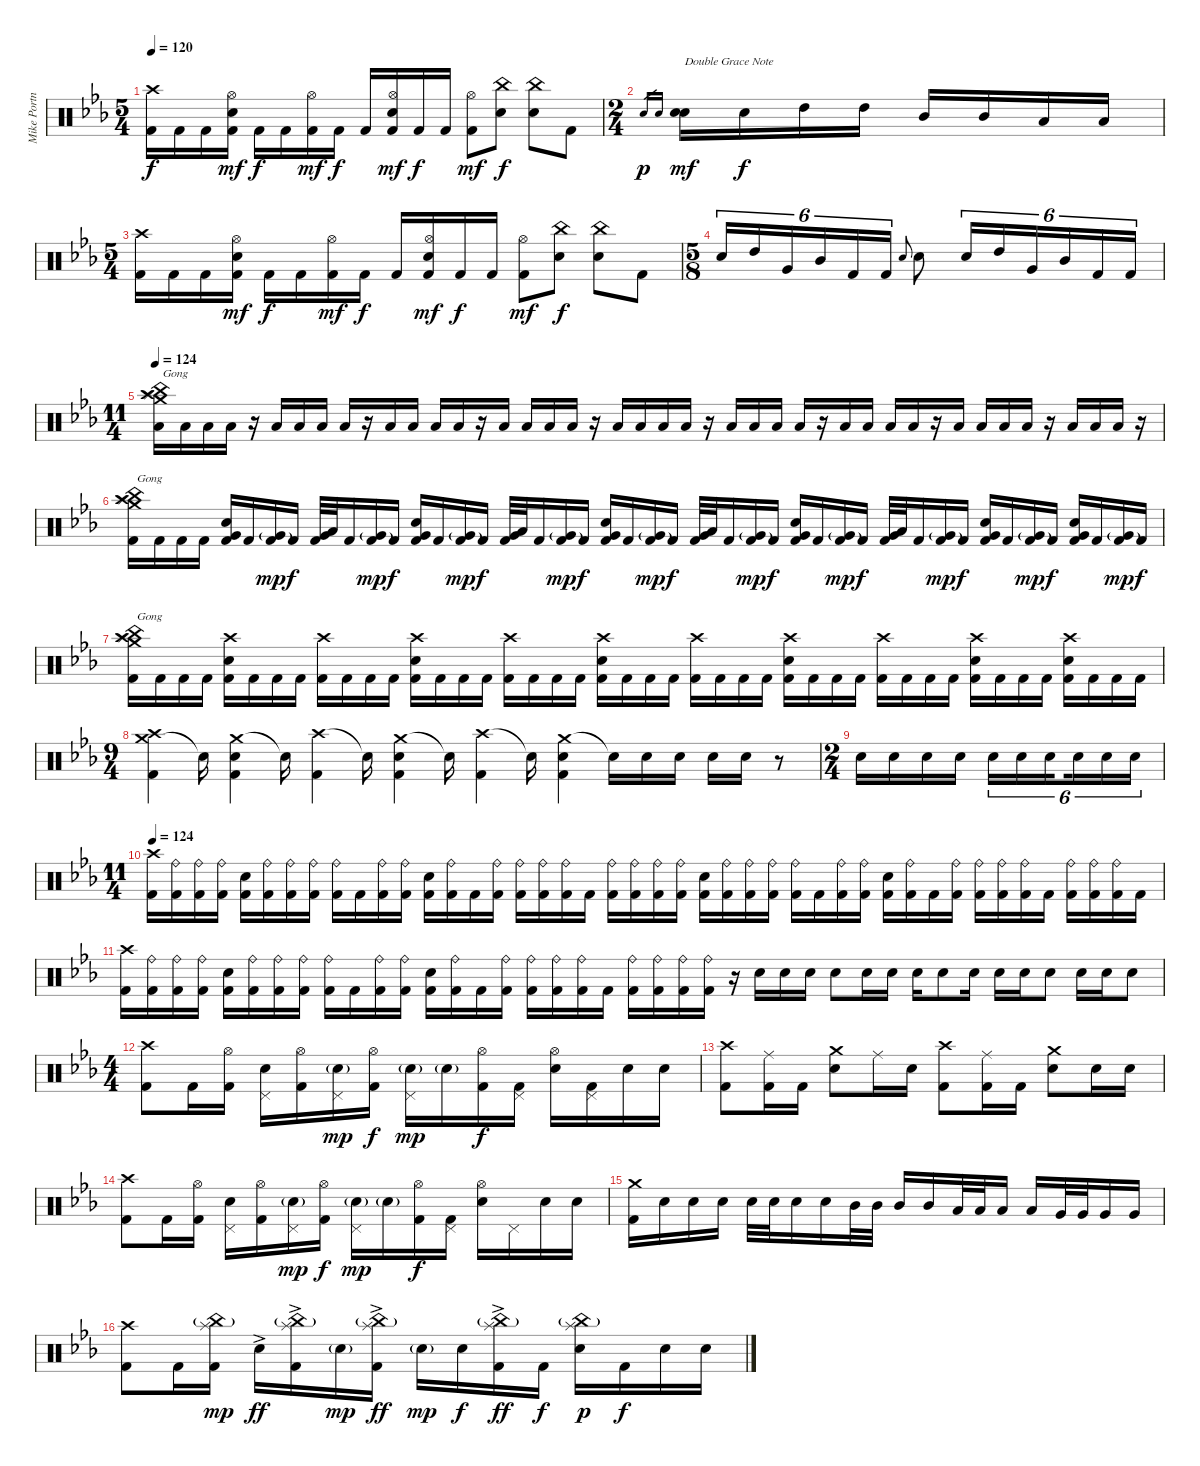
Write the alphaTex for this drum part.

\track ("Mike Portnoy" "Mike Portn") {instrument percussion}
\staff {score}
\articulation defaults
\ts (5 4)
\tempo 120
\clef neutral
\ks eb
("Crash high (hit)" "Kick (hit) 2").16{dy f} "Kick (hit) 2".16 "Kick (hit) 2".16 ("Hi-Hat (open)" "Electric Snare (hit)" "Kick (hit) 2").16{dy mf} "Kick (hit) 2".16{dy f} "Kick (hit) 2".16 ("Hi-Hat (open)" "Kick (hit) 2").16{dy mf} "Kick (hit) 2".16{dy f} "Kick (hit) 2".16 ("Hi-Hat (open)" "Electric Snare (hit)" "Kick (hit) 2").16{dy mf} "Kick (hit) 2".16{dy f} "Kick (hit) 2".16 ("Hi-Hat (open)" "Kick (hit) 2").8{dy mf} ("China (hit)" "Electric Snare (hit)").8{dy f} ("China (hit)" "Electric Snare (hit)").8 "Kick (hit) 2".8 |
\ts (2 4)
"Electric Snare (hit)".16{gr dy p} "Electric Snare (hit)".16{gr} ("Electric Snare (hit)" "Electric Snare (hit)").16{txt "Double Grace Note" dy mf} "Electric Snare (hit)".16{dy f} "High Tom (hit)".16 "High Tom (hit)".16 "Mid Tom (hit)".16 "Mid Tom (hit)".16 "Low Tom (hit)".16 "Low Tom (hit)".16 |
\ts (5 4)
("Crash high (hit)" "Kick (hit) 2").16 "Kick (hit) 2".16 "Kick (hit) 2".16 ("Hi-Hat (open)" "Electric Snare (hit)" "Kick (hit) 2").16{dy mf} "Kick (hit) 2".16{dy f} "Kick (hit) 2".16 ("Hi-Hat (open)" "Kick (hit) 2").16{dy mf} "Kick (hit) 2".16{dy f} "Kick (hit) 2".16 ("Hi-Hat (open)" "Electric Snare (hit)" "Kick (hit) 2").16{dy mf} "Kick (hit) 2".16{dy f} "Kick (hit) 2".16 ("Hi-Hat (open)" "Kick (hit) 2").8{dy mf} ("China (hit)" "Electric Snare (hit)").8{dy f} ("China (hit)" "Electric Snare (hit)").8 "Kick (hit) 2".8 |
\ts (5 8)
"Electric Snare (hit)".16{tu (6 4)} "High Tom (hit)".16{tu (6 4)} "Very Low Tom (hit)".16{tu (6 4)} "Mid Tom (hit)".16{tu (6 4)} "Kick (hit) 2".16{tu (6 4)} "Kick (hit) 2".16{tu (6 4)} "Electric Snare (hit)"{h}.8{gr onbeat} "Electric Snare (hit)".8 "Electric Snare (hit)".16{tu (6 4)} "High Tom (hit)".16{tu (6 4)} "Very Low Tom (hit)".16{tu (6 4)} "Mid Tom (hit)".16{tu (6 4)} "Kick (hit) 2".16{tu (6 4)} "Kick (hit) 2".16{tu (6 4)} |
\ts (11 4)
\tempo 124
("China (hit)" "Crash high (hit)" "Low Floor Tom (hit)" "Crash medium (hit)" "Splash (hit)").16{txt "Gong"} "Low Floor Tom (hit)".16 "Low Floor Tom (hit)".16 "Low Floor Tom (hit)".16 r.16 "Low Floor Tom (hit)".16 "Low Floor Tom (hit)".16 "Low Floor Tom (hit)".16 "Low Floor Tom (hit)".16 r.16 "Low Floor Tom (hit)".16 "Low Floor Tom (hit)".16 "Low Floor Tom (hit)".16 "Low Floor Tom (hit)".16 r.16 "Low Floor Tom (hit)".16 "Low Floor Tom (hit)".16 "Low Floor Tom (hit)".16 "Low Floor Tom (hit)".16 r.16 "Low Floor Tom (hit)".16 "Low Floor Tom (hit)".16 "Low Floor Tom (hit)".16 "Low Floor Tom (hit)".16 r.16 "Low Floor Tom (hit)".16 "Low Floor Tom (hit)".16 "Low Floor Tom (hit)".16 "Low Floor Tom (hit)".16 r.16 "Low Floor Tom (hit)".16 "Low Floor Tom (hit)".16 "Low Floor Tom (hit)".16 "Low Floor Tom (hit)".16 r.16 "Low Floor Tom (hit)".16 "Low Floor Tom (hit)".16 "Low Floor Tom (hit)".16 "Low Floor Tom (hit)".16 r.16 "Low Floor Tom (hit)".16 "Low Floor Tom (hit)".16 "Low Floor Tom (hit)".16 r.16 |
("China (hit)" "Crash medium (hit)" "Crash high (hit)" "Splash (hit)" "Kick (hit) 2").16{txt "Gong"} "Kick (hit) 2".16 "Kick (hit) 2".16 "Kick (hit) 2".16 ("Electric Snare (hit)" "Very Low Tom (hit)" "Kick (hit) 2").16 "Kick (hit) 2".16 ("Very Low Tom (hit)"{g} "Kick (hit) 2").16{dy mp} "Kick (hit) 2".16{dy f} ("Very Low Tom (hit)" "Kick (hit) 2").32 "Low Tom (hit)".32 "Kick (hit) 2".16 ("Very Low Tom (hit)"{g} "Kick (hit) 2").16{dy mp} "Kick (hit) 2".16{dy f} ("Electric Snare (hit)" "Very Low Tom (hit)" "Kick (hit) 2").16 "Kick (hit) 2".16 ("Very Low Tom (hit)"{g} "Kick (hit) 2").16{dy mp} "Kick (hit) 2".16{dy f} ("Very Low Tom (hit)" "Kick (hit) 2").32 "Low Tom (hit)".32 "Kick (hit) 2".16 ("Very Low Tom (hit)"{g} "Kick (hit) 2").16{dy mp} "Kick (hit) 2".16{dy f} ("Electric Snare (hit)" "Very Low Tom (hit)" "Kick (hit) 2").16 "Kick (hit) 2".16 ("Very Low Tom (hit)"{g} "Kick (hit) 2").16{dy mp} "Kick (hit) 2".16{dy f} ("Very Low Tom (hit)" "Kick (hit) 2").32 "Low Tom (hit)".32 "Kick (hit) 2".16 ("Very Low Tom (hit)"{g} "Kick (hit) 2").16{dy mp} "Kick (hit) 2".16{dy f} ("Electric Snare (hit)" "Very Low Tom (hit)" "Kick (hit) 2").16 "Kick (hit) 2".16 ("Very Low Tom (hit)"{g} "Kick (hit) 2").16{dy mp} "Kick (hit) 2".16{dy f} ("Very Low Tom (hit)" "Kick (hit) 2").32 "Low Tom (hit)".32 "Kick (hit) 2".16 ("Very Low Tom (hit)"{g} "Kick (hit) 2").16{dy mp} "Kick (hit) 2".16{dy f} ("Electric Snare (hit)" "Very Low Tom (hit)" "Kick (hit) 2").16 "Kick (hit) 2".16 ("Very Low Tom (hit)"{g} "Kick (hit) 2").16{dy mp} "Kick (hit) 2".16{dy f} ("Electric Snare (hit)" "Very Low Tom (hit)" "Kick (hit) 2").16 "Kick (hit) 2".16 ("Very Low Tom (hit)"{g} "Kick (hit) 2").16{dy mp} "Kick (hit) 2".16{dy f} |
("Crash high (hit)" "Crash medium (hit)" "Splash (hit)" "China (hit)" "Kick (hit) 2").16{txt "Gong"} "Kick (hit) 2".16 "Kick (hit) 2".16 "Kick (hit) 2".16 ("Crash high (hit)" "Electric Snare (hit)" "Kick (hit) 2").16 "Kick (hit) 2".16 "Kick (hit) 2".16 "Kick (hit) 2".16 ("Crash high (hit)" "Kick (hit) 2").16 "Kick (hit) 2".16 "Kick (hit) 2".16 "Kick (hit) 2".16 ("Crash high (hit)" "Electric Snare (hit)" "Kick (hit) 2").16 "Kick (hit) 2".16 "Kick (hit) 2".16 "Kick (hit) 2".16 ("Crash high (hit)" "Kick (hit) 2").16 "Kick (hit) 2".16 "Kick (hit) 2".16 "Kick (hit) 2".16 ("Crash high (hit)" "Electric Snare (hit)" "Kick (hit) 2").16 "Kick (hit) 2".16 "Kick (hit) 2".16 "Kick (hit) 2".16 ("Crash high (hit)" "Kick (hit) 2").16 "Kick (hit) 2".16 "Kick (hit) 2".16 "Kick (hit) 2".16 ("Crash high (hit)" "Electric Snare (hit)" "Kick (hit) 2").16 "Kick (hit) 2".16 "Kick (hit) 2".16 "Kick (hit) 2".16 ("Crash high (hit)" "Kick (hit) 2").16 "Kick (hit) 2".16 "Kick (hit) 2".16 "Kick (hit) 2".16 ("Crash high (hit)" "Electric Snare (hit)" "Kick (hit) 2").16 "Kick (hit) 2".16 "Kick (hit) 2".16 "Kick (hit) 2".16 ("Crash high (hit)" "Electric Snare (hit)" "Kick (hit) 2").16 "Kick (hit) 2".16 "Kick (hit) 2".16 "Kick (hit) 2".16 |
\ts (9 4)
("Crash medium (hit)" "Crash high (hit)" "Kick (hit) 2").4 "Snare (hit)"{t}.16 ("Crash medium (hit)" "Electric Snare (hit)" "Kick (hit) 2").4 "Snare (hit)"{t}.16 ("Crash high (hit)" "Kick (hit) 2").4 "Snare (hit)"{t}.16 ("Crash medium (hit)" "Electric Snare (hit)" "Kick (hit) 2").4 "Snare (hit)"{t}.16 ("Crash high (hit)" "Kick (hit) 2").4 "Snare (hit)"{t}.16 ("Crash medium (hit)" "Electric Snare (hit)" "Kick (hit) 2").4 "Snare (hit)"{t}.16 "Electric Snare (hit)".16 "Electric Snare (hit)".16 "Electric Snare (hit)".16 "Electric Snare (hit)".16 r.8 |
\ts (2 4)
"Electric Snare (hit)".16 "Electric Snare (hit)".16 "Electric Snare (hit)".16 "Electric Snare (hit)".16 "Electric Snare (hit)".16{tu (6 4)} "Electric Snare (hit)".16{tu (6 4)} "Electric Snare (hit)".16{tu (6 4) beam splitsecondary} "Electric Snare (hit)".16{tu (6 4)} "Electric Snare (hit)".16{tu (6 4)} "Electric Snare (hit)".16{tu (6 4)} |
\ts (11 4)
\tempo 124
("Crash high (hit)" "Kick (hit) 2").16 ("Ride (bell)" "Kick (hit) 2").16 ("Ride (bell)" "Kick (hit) 2").16 ("Ride (bell)" "Kick (hit) 2").16 ("Electric Snare (hit)" "Kick (hit) 2").16 ("Ride (bell)" "Kick (hit) 2").16 ("Ride (bell)" "Kick (hit) 2").16 ("Ride (bell)" "Kick (hit) 2").16 ("Ride (bell)" "Kick (hit) 2").16 "Kick (hit) 2".16 ("Ride (bell)" "Kick (hit) 2").16 ("Ride (bell)" "Kick (hit) 2").16 ("Electric Snare (hit)" "Kick (hit) 2").16 ("Ride (bell)" "Kick (hit) 2").16 "Kick (hit) 2".16 ("Ride (bell)" "Kick (hit) 2").16 ("Ride (bell)" "Kick (hit) 2").16 ("Ride (bell)" "Kick (hit) 2").16 ("Ride (bell)" "Kick (hit) 2").16 "Kick (hit) 2".16 ("Ride (bell)" "Kick (hit) 2").16 ("Ride (bell)" "Kick (hit) 2").16 ("Ride (bell)" "Kick (hit) 2").16 ("Ride (bell)" "Kick (hit) 2").16 ("Electric Snare (hit)" "Kick (hit) 2").16 ("Ride (bell)" "Kick (hit) 2").16 ("Ride (bell)" "Kick (hit) 2").16 ("Ride (bell)" "Kick (hit) 2").16 ("Ride (bell)" "Kick (hit) 2").16 "Kick (hit) 2".16 ("Ride (bell)" "Kick (hit) 2").16 ("Ride (bell)" "Kick (hit) 2").16 ("Electric Snare (hit)" "Kick (hit) 2").16 ("Ride (bell)" "Kick (hit) 2").16 "Kick (hit) 2".16 ("Ride (bell)" "Kick (hit) 2").16 ("Ride (bell)" "Kick (hit) 2").16 ("Ride (bell)" "Kick (hit) 2").16 ("Ride (bell)" "Kick (hit) 2").16 "Kick (hit) 2".16 ("Ride (bell)" "Kick (hit) 2").16 ("Ride (bell)" "Kick (hit) 2").16 ("Ride (bell)" "Kick (hit) 2").16 "Kick (hit) 2".16 |
("Crash high (hit)" "Kick (hit) 2").16 ("Ride (bell)" "Kick (hit) 2").16 ("Ride (bell)" "Kick (hit) 2").16 ("Ride (bell)" "Kick (hit) 2").16 ("Electric Snare (hit)" "Kick (hit) 2").16 ("Ride (bell)" "Kick (hit) 2").16 ("Ride (bell)" "Kick (hit) 2").16 ("Ride (bell)" "Kick (hit) 2").16 ("Ride (bell)" "Kick (hit) 2").16 "Kick (hit) 2".16 ("Ride (bell)" "Kick (hit) 2").16 ("Ride (bell)" "Kick (hit) 2").16 ("Electric Snare (hit)" "Kick (hit) 2").16 ("Ride (bell)" "Kick (hit) 2").16 "Kick (hit) 2".16 ("Ride (bell)" "Kick (hit) 2").16 ("Ride (bell)" "Kick (hit) 2").16 ("Ride (bell)" "Kick (hit) 2").16 ("Ride (bell)" "Kick (hit) 2").16 "Kick (hit) 2".16 ("Ride (bell)" "Kick (hit) 2").16 ("Ride (bell)" "Kick (hit) 2").16 ("Ride (bell)" "Kick (hit) 2").16 ("Ride (bell)" "Kick (hit) 2").16 r.16 "Electric Snare (hit)".16 "Electric Snare (hit)".16 "Electric Snare (hit)".16 "Electric Snare (hit)".8 "Electric Snare (hit)".16 "Electric Snare (hit)".16 "Electric Snare (hit)".16 "Electric Snare (hit)".8 "Electric Snare (hit)".16 "Electric Snare (hit)".16 "Electric Snare (hit)".16 "Electric Snare (hit)".8 "Electric Snare (hit)".16 "Electric Snare (hit)".16 "Electric Snare (hit)".8 |
\ts (4 4)
("Crash high (hit)" "Kick (hit) 2").8 "Kick (hit) 2".16 ("Hi-Hat (open)" "Kick (hit) 2").16 ("Pedal Hi-Hat (hit)" "Electric Snare (hit)").16 ("Hi-Hat (open)" "Kick (hit) 2").16 ("Pedal Hi-Hat (hit)" "Electric Snare (hit)"{g}).16{dy mp} ("Hi-Hat (open)" "Kick (hit) 2").16{dy f} ("Pedal Hi-Hat (hit)" "Electric Snare (hit)"{g}).16{dy mp} "Electric Snare (hit)"{g}.16 ("Hi-Hat (open)" "Kick (hit) 2").16{dy f} ("Pedal Hi-Hat (hit)" "Kick (hit) 2").16 ("Hi-Hat (open)" "Electric Snare (hit)").16 ("Pedal Hi-Hat (hit)" "Kick (hit) 2").16 "Electric Snare (hit)".16 "Electric Snare (hit)".16 |
("Crash high (hit)" "Kick (hit) 2").8 ("Ride (middle)" "Kick (hit) 2").16 "Kick (hit) 2".16 ("Crash medium (hit)" "Electric Snare (hit)").8 "Ride (middle)".16 "Electric Snare (hit)".16 ("Crash high (hit)" "Kick (hit) 2").8 ("Ride (middle)" "Kick (hit) 2").16 "Kick (hit) 2".16 ("Crash medium (hit)" "Electric Snare (hit)").8 "Electric Snare (hit)".16 "Electric Snare (hit)".16 |
("Crash high (hit)" "Kick (hit) 2").8 "Kick (hit) 2".16 ("Hi-Hat (open)" "Kick (hit) 2").16 ("Pedal Hi-Hat (hit)" "Electric Snare (hit)").16 ("Hi-Hat (open)" "Kick (hit) 2").16 ("Pedal Hi-Hat (hit)" "Electric Snare (hit)"{g}).16{dy mp} ("Hi-Hat (open)" "Kick (hit) 2").16{dy f} ("Pedal Hi-Hat (hit)" "Electric Snare (hit)"{g}).16{dy mp} "Electric Snare (hit)"{g}.16 ("Hi-Hat (open)" "Kick (hit) 2").16{dy f} ("Pedal Hi-Hat (hit)" "Kick (hit) 2").16 ("Hi-Hat (open)" "Electric Snare (hit)").16 "Pedal Hi-Hat (hit)".16 "Electric Snare (hit)".16 "Electric Snare (hit)".16 |
("Crash medium (hit)" "Kick (hit) 2").16 "Electric Snare (hit)".16 "Electric Snare (hit)".16 "Electric Snare (hit)".16 "Electric Snare (hit)".32 "Electric Snare (hit)".32 "Electric Snare (hit)".16 "Electric Snare (hit)".16 "Mid Tom (hit)".32 "Mid Tom (hit)".32 "Mid Tom (hit)".16 "Mid Tom (hit)".16 "Low Tom (hit)".32 "Low Tom (hit)".32 "Low Tom (hit)".16 "Low Tom (hit)".16 "Very Low Tom (hit)".32 "Very Low Tom (hit)".32 "Very Low Tom (hit)".16 "Very Low Tom (hit)".16 |
("Crash high (hit)" "Kick (hit) 2").8 "Kick (hit) 2".16 ("China (hit)"{g} "Splash (hit)" "Kick (hit) 2").16{dy mp} "Electric Snare (hit)"{ac}.16{dy ff} ("China (hit)"{g} "Splash (hit)"{ac} "Kick (hit) 2"{ac}).16 "Electric Snare (hit)"{g}.16{dy mp} ("China (hit)"{g} "Splash (hit)"{ac} "Kick (hit) 2"{ac}).16{dy ff} "Electric Snare (hit)"{g}.16{dy mp} "Electric Snare (hit)".16{dy f} ("China (hit)"{g} "Splash (hit)"{ac} "Kick (hit) 2"{ac}).16{dy ff} "Kick (hit) 2".16{dy f} ("China (hit)"{g} "Splash (hit)" "Electric Snare (hit)").16{dy p} "Kick (hit) 2".16{dy f} "Electric Snare (hit)".16 "Electric Snare (hit)".16
